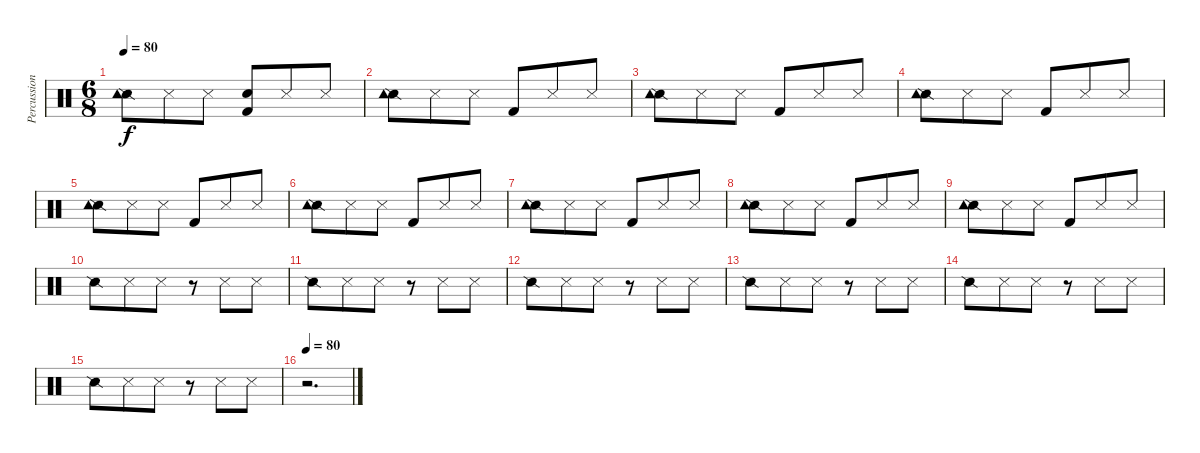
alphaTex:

\track ("Percussion" "Percussion") {instrument percussion}
\staff {score}
\articulation defaults
\ts (6 8)
\tempo 80
\clef neutral
\ks c
("Snare (side stick) 2" "Tambourine (hit)").8{dy f} "Snare (side stick) 3".8 "Snare (side stick) 3".8 ("Kick (hit) 2" "Snare (hit) 2").8 "Snare (side stick) 3".8 "Snare (side stick) 3".8 |
("Snare (side stick) 2" "Tambourine (hit)").8 "Snare (side stick) 3".8 "Snare (side stick) 3".8 "Kick (hit) 2".8 "Snare (side stick) 3".8 "Snare (side stick) 3".8 |
("Snare (side stick) 2" "Tambourine (hit)").8 "Snare (side stick) 3".8 "Snare (side stick) 3".8 "Kick (hit) 2".8 "Snare (side stick) 3".8 "Snare (side stick) 3".8 |
("Snare (side stick) 2" "Tambourine (hit)").8 "Snare (side stick) 3".8 "Snare (side stick) 3".8 "Kick (hit) 2".8 "Snare (side stick) 3".8 "Snare (side stick) 3".8 |
("Snare (side stick) 2" "Tambourine (hit)").8 "Snare (side stick) 3".8 "Snare (side stick) 3".8 "Kick (hit) 2".8 "Snare (side stick) 3".8 "Snare (side stick) 3".8 |
("Snare (side stick) 2" "Tambourine (hit)").8 "Snare (side stick) 3".8 "Snare (side stick) 3".8 "Kick (hit) 2".8 "Snare (side stick) 3".8 "Snare (side stick) 3".8 |
("Snare (side stick) 2" "Tambourine (hit)").8 "Snare (side stick) 3".8 "Snare (side stick) 3".8 "Kick (hit) 2".8 "Snare (side stick) 3".8 "Snare (side stick) 3".8 |
("Snare (side stick) 2" "Tambourine (hit)").8 "Snare (side stick) 3".8 "Snare (side stick) 3".8 "Kick (hit) 2".8 "Snare (side stick) 3".8 "Snare (side stick) 3".8 |
("Snare (side stick) 2" "Tambourine (hit)").8 "Snare (side stick) 3".8 "Snare (side stick) 3".8 "Kick (hit) 2".8 "Snare (side stick) 3".8 "Snare (side stick) 3".8 |
"Snare (side stick) 2".8 "Snare (side stick) 3".8 "Snare (side stick) 3".8 r.8 "Snare (side stick) 3".8 "Snare (side stick) 3".8 |
"Snare (side stick) 2".8 "Snare (side stick) 3".8 "Snare (side stick) 3".8 r.8 "Snare (side stick) 3".8 "Snare (side stick) 3".8 |
"Snare (side stick) 2".8 "Snare (side stick) 3".8 "Snare (side stick) 3".8 r.8 "Snare (side stick) 3".8 "Snare (side stick) 3".8 |
"Snare (side stick) 2".8 "Snare (side stick) 3".8 "Snare (side stick) 3".8 r.8 "Snare (side stick) 3".8 "Snare (side stick) 3".8 |
"Snare (side stick) 2".8 "Snare (side stick) 3".8 "Snare (side stick) 3".8 r.8 "Snare (side stick) 3".8 "Snare (side stick) 3".8 |
"Snare (side stick) 2".8 "Snare (side stick) 3".8 "Snare (side stick) 3".8 r.8 "Snare (side stick) 3".8 "Snare (side stick) 3".8 |
\tempo 80
r.2{d}
